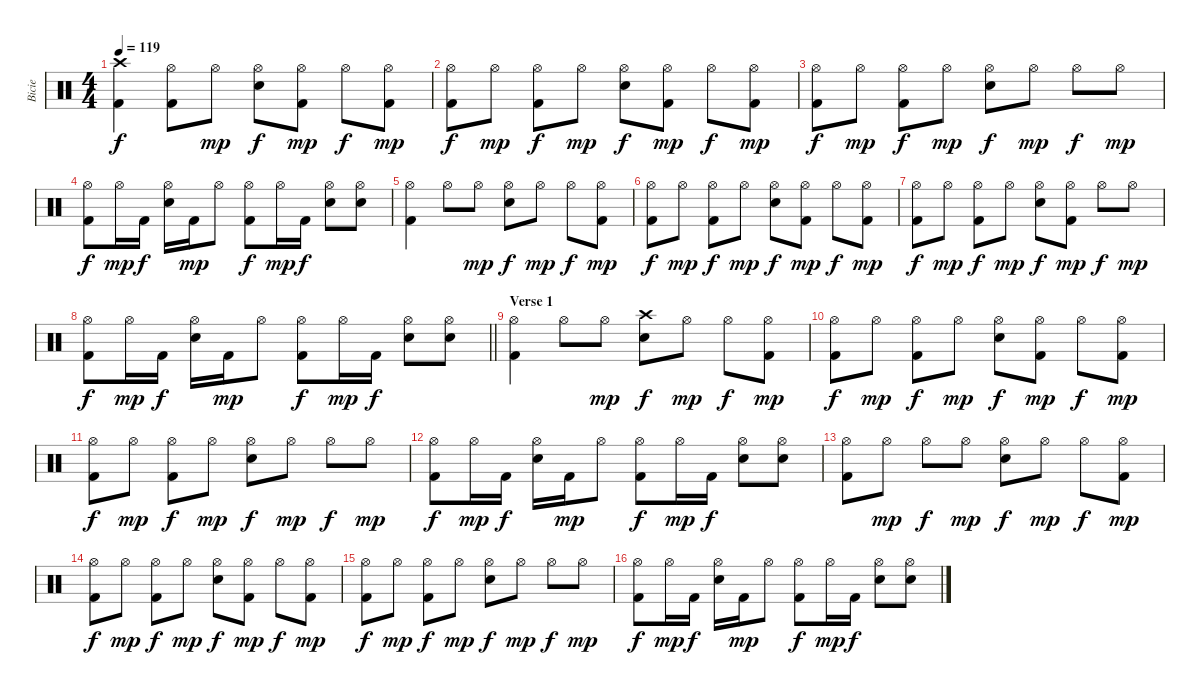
\track ("Bicie" "Bicie") {instrument percussion}
\staff {score}
\articulation defaults
\ts (4 4)
\tempo 119
\clef neutral
\ks c
("Crash high (hit)" "Kick (hit) 2").4{dy f} ("Hi-Hat (open)" "Kick (hit) 2").8 "Hi-Hat (open)".8{dy mp} ("Hi-Hat (open)" "Snare (hit) 2").8{dy f} ("Hi-Hat (open)" "Kick (hit) 2").8{dy mp} "Hi-Hat (open)".8{dy f} ("Hi-Hat (open)" "Kick (hit) 2").8{dy mp} |
("Hi-Hat (open)" "Kick (hit) 2").8{dy f} "Hi-Hat (open)".8{dy mp} ("Hi-Hat (open)" "Kick (hit) 2").8{dy f} "Hi-Hat (open)".8{dy mp} ("Hi-Hat (open)" "Snare (hit) 2").8{dy f} ("Hi-Hat (open)" "Kick (hit) 2").8{dy mp} "Hi-Hat (open)".8{dy f} ("Hi-Hat (open)" "Kick (hit) 2").8{dy mp} |
("Hi-Hat (open)" "Kick (hit) 2").8{dy f} "Hi-Hat (open)".8{dy mp} ("Hi-Hat (open)" "Kick (hit) 2").8{dy f} "Hi-Hat (open)".8{dy mp} ("Hi-Hat (open)" "Snare (hit) 2").8{dy f} "Hi-Hat (open)".8{dy mp} "Hi-Hat (open)".8{dy f} "Hi-Hat (open)".8{dy mp} |
("Hi-Hat (open)" "Kick (hit) 2").8{dy f} "Hi-Hat (open)".16{dy mp} "Kick (hit) 2".16{dy f} ("Hi-Hat (open)" "Snare (hit) 2").16 "Kick (hit) 2".16{dy mp} "Hi-Hat (open)".8 ("Hi-Hat (open)" "Kick (hit) 2").8{dy f} "Hi-Hat (open)".16{dy mp} "Kick (hit) 2".16{dy f} ("Hi-Hat (open)" "Snare (hit) 2").8 ("Hi-Hat (open)" "Snare (hit) 2").8 |
("Hi-Hat (open)" "Kick (hit) 2").4 "Hi-Hat (open)".8 "Hi-Hat (open)".8{dy mp} ("Hi-Hat (open)" "Snare (hit) 2").8{dy f} "Hi-Hat (open)".8{dy mp} "Hi-Hat (open)".8{dy f} ("Hi-Hat (open)" "Kick (hit) 2").8{dy mp} |
("Hi-Hat (open)" "Kick (hit) 2").8{dy f} "Hi-Hat (open)".8{dy mp} ("Hi-Hat (open)" "Kick (hit) 2").8{dy f} "Hi-Hat (open)".8{dy mp} ("Hi-Hat (open)" "Snare (hit) 2").8{dy f} ("Hi-Hat (open)" "Kick (hit) 2").8{dy mp} "Hi-Hat (open)".8{dy f} ("Hi-Hat (open)" "Kick (hit) 2").8{dy mp} |
("Hi-Hat (open)" "Kick (hit) 2").8{dy f} "Hi-Hat (open)".8{dy mp} ("Hi-Hat (open)" "Kick (hit) 2").8{dy f} "Hi-Hat (open)".8{dy mp} ("Hi-Hat (open)" "Snare (hit) 2").8{dy f} ("Hi-Hat (open)" "Kick (hit) 2").8{dy mp} "Hi-Hat (open)".8{dy f} "Hi-Hat (open)".8{dy mp} |
\barLineRight lightlight
("Hi-Hat (open)" "Kick (hit) 2").8{dy f} "Hi-Hat (open)".16{dy mp} "Kick (hit) 2".16{dy f} ("Hi-Hat (open)" "Snare (hit) 2").16 "Kick (hit) 2".16{dy mp} "Hi-Hat (open)".8 ("Hi-Hat (open)" "Kick (hit) 2").8{dy f} "Hi-Hat (open)".16{dy mp} "Kick (hit) 2".16{dy f} ("Hi-Hat (open)" "Snare (hit) 2").8 ("Hi-Hat (open)" "Snare (hit) 2").8 |
\section ("" "Verse 1")
("Hi-Hat (open)" "Kick (hit) 2").4 "Hi-Hat (open)".8 "Hi-Hat (open)".8{dy mp} ("Crash high (hit)" "Snare (hit) 2").8{dy f} "Hi-Hat (open)".8{dy mp} "Hi-Hat (open)".8{dy f} ("Hi-Hat (open)" "Kick (hit) 2").8{dy mp} |
("Hi-Hat (open)" "Kick (hit) 2").8{dy f} "Hi-Hat (open)".8{dy mp} ("Hi-Hat (open)" "Kick (hit) 2").8{dy f} "Hi-Hat (open)".8{dy mp} ("Hi-Hat (open)" "Snare (hit) 2").8{dy f} ("Hi-Hat (open)" "Kick (hit) 2").8{dy mp} "Hi-Hat (open)".8{dy f} ("Hi-Hat (open)" "Kick (hit) 2").8{dy mp} |
("Hi-Hat (open)" "Kick (hit) 2").8{dy f} "Hi-Hat (open)".8{dy mp} ("Hi-Hat (open)" "Kick (hit) 2").8{dy f} "Hi-Hat (open)".8{dy mp} ("Hi-Hat (open)" "Snare (hit) 2").8{dy f} "Hi-Hat (open)".8{dy mp} "Hi-Hat (open)".8{dy f} "Hi-Hat (open)".8{dy mp} |
("Hi-Hat (open)" "Kick (hit) 2").8{dy f} "Hi-Hat (open)".16{dy mp} "Kick (hit) 2".16{dy f} ("Hi-Hat (open)" "Snare (hit) 2").16 "Kick (hit) 2".16{dy mp} "Hi-Hat (open)".8 ("Hi-Hat (open)" "Kick (hit) 2").8{dy f} "Hi-Hat (open)".16{dy mp} "Kick (hit) 2".16{dy f} ("Hi-Hat (open)" "Snare (hit) 2").8 ("Hi-Hat (open)" "Snare (hit) 2").8 |
("Hi-Hat (open)" "Kick (hit) 2").8 "Hi-Hat (open)".8{dy mp} "Hi-Hat (open)".8{dy f} "Hi-Hat (open)".8{dy mp} ("Hi-Hat (open)" "Snare (hit) 2").8{dy f} "Hi-Hat (open)".8{dy mp} "Hi-Hat (open)".8{dy f} ("Hi-Hat (open)" "Kick (hit) 2").8{dy mp} |
("Hi-Hat (open)" "Kick (hit) 2").8{dy f} "Hi-Hat (open)".8{dy mp} ("Hi-Hat (open)" "Kick (hit) 2").8{dy f} "Hi-Hat (open)".8{dy mp} ("Hi-Hat (open)" "Snare (hit) 2").8{dy f} ("Hi-Hat (open)" "Kick (hit) 2").8{dy mp} "Hi-Hat (open)".8{dy f} ("Hi-Hat (open)" "Kick (hit) 2").8{dy mp} |
("Hi-Hat (open)" "Kick (hit) 2").8{dy f} "Hi-Hat (open)".8{dy mp} ("Hi-Hat (open)" "Kick (hit) 2").8{dy f} "Hi-Hat (open)".8{dy mp} ("Hi-Hat (open)" "Snare (hit) 2").8{dy f} "Hi-Hat (open)".8{dy mp} "Hi-Hat (open)".8{dy f} "Hi-Hat (open)".8{dy mp} |
("Hi-Hat (open)" "Kick (hit) 2").8{dy f} "Hi-Hat (open)".16{dy mp} "Kick (hit) 2".16{dy f} ("Hi-Hat (open)" "Snare (hit) 2").16 "Kick (hit) 2".16{dy mp} "Hi-Hat (open)".8 ("Hi-Hat (open)" "Kick (hit) 2").8{dy f} "Hi-Hat (open)".16{dy mp} "Kick (hit) 2".16{dy f} ("Hi-Hat (open)" "Snare (hit) 2").8 ("Hi-Hat (open)" "Snare (hit) 2").8
